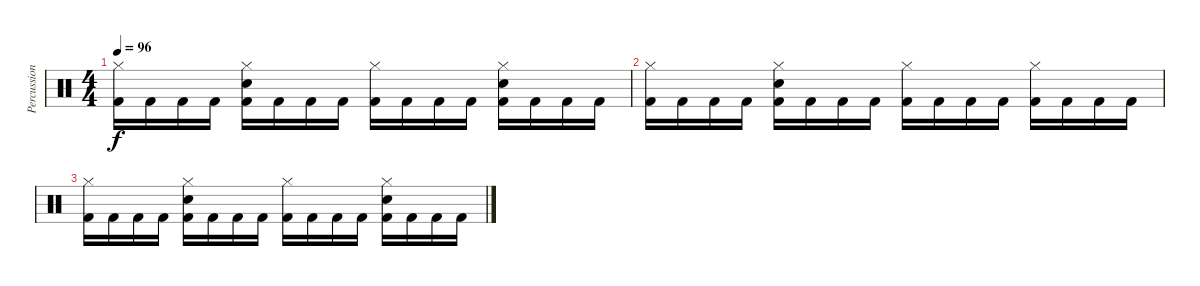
\track ("Percussion" "Percussion") {instrument percussion}
\staff {score}
\articulation defaults
\ts (4 4)
\tempo 96
\clef neutral
\ks c
("Hi-Hat (closed)" "Kick (hit) 2").16{dy f} "Kick (hit) 2".16 "Kick (hit) 2".16 "Kick (hit) 2".16 ("Hi-Hat (closed)" "Electric Snare (hit)" "Kick (hit) 2").16 "Kick (hit) 2".16 "Kick (hit) 2".16 "Kick (hit) 2".16 ("Hi-Hat (closed)" "Kick (hit) 2").16 "Kick (hit) 2".16 "Kick (hit) 2".16 "Kick (hit) 2".16 ("Hi-Hat (closed)" "Electric Snare (hit)" "Kick (hit) 2").16 "Kick (hit) 2".16 "Kick (hit) 2".16 "Kick (hit) 2".16 |
("Hi-Hat (closed)" "Kick (hit) 2").16 "Kick (hit) 2".16 "Kick (hit) 2".16 "Kick (hit) 2".16 ("Hi-Hat (closed)" "Electric Snare (hit)" "Kick (hit) 2").16 "Kick (hit) 2".16 "Kick (hit) 2".16 "Kick (hit) 2".16 ("Hi-Hat (closed)" "Kick (hit) 2").16 "Kick (hit) 2".16 "Kick (hit) 2".16 "Kick (hit) 2".16 ("Hi-Hat (closed)" "Kick (hit) 2").16 "Kick (hit) 2".16 "Kick (hit) 2".16 "Kick (hit) 2".16 |
("Hi-Hat (closed)" "Kick (hit) 2").16 "Kick (hit) 2".16 "Kick (hit) 2".16 "Kick (hit) 2".16 ("Hi-Hat (closed)" "Electric Snare (hit)" "Kick (hit) 2").16 "Kick (hit) 2".16 "Kick (hit) 2".16 "Kick (hit) 2".16 ("Hi-Hat (closed)" "Kick (hit) 2").16 "Kick (hit) 2".16 "Kick (hit) 2".16 "Kick (hit) 2".16 ("Hi-Hat (closed)" "Electric Snare (hit)" "Kick (hit) 2").16 "Kick (hit) 2".16 "Kick (hit) 2".16 "Kick (hit) 2".16
